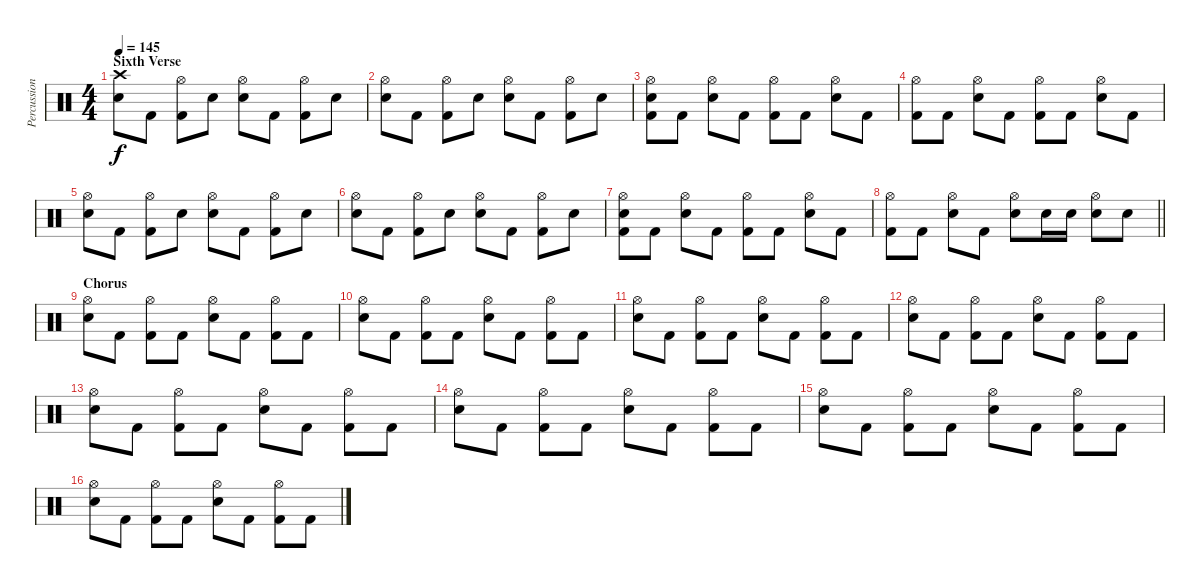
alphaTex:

\track ("Percussion" "Percussion") {instrument percussion}
\staff {score}
\articulation defaults
\ts (4 4)
\section ("" "Sixth Verse")
\tempo 145
\clef neutral
\ks c
("Crash high (hit)" "Electric Snare (hit)").8{dy f} "Kick (hit) 2".8 ("Hi-Hat (open)" "Kick (hit) 2").8 "Electric Snare (hit)".8 ("Hi-Hat (open)" "Electric Snare (hit)").8 "Kick (hit) 2".8 ("Hi-Hat (open)" "Kick (hit) 2").8 "Electric Snare (hit)".8 |
("Hi-Hat (open)" "Electric Snare (hit)").8 "Kick (hit) 2".8 ("Hi-Hat (open)" "Kick (hit) 2").8 "Electric Snare (hit)".8 ("Hi-Hat (open)" "Electric Snare (hit)").8 "Kick (hit) 2".8 ("Hi-Hat (open)" "Kick (hit) 2").8 "Electric Snare (hit)".8 |
("Hi-Hat (open)" "Electric Snare (hit)" "Kick (hit) 2").8 "Kick (hit) 2".8 ("Hi-Hat (open)" "Electric Snare (hit)").8 "Kick (hit) 2".8 ("Hi-Hat (open)" "Kick (hit) 2").8 "Kick (hit) 2".8 ("Hi-Hat (open)" "Electric Snare (hit)").8 "Kick (hit) 2".8 |
("Hi-Hat (open)" "Kick (hit) 2").8 "Kick (hit) 2".8 ("Hi-Hat (open)" "Electric Snare (hit)").8 "Kick (hit) 2".8 ("Hi-Hat (open)" "Kick (hit) 2").8 "Kick (hit) 2".8 ("Hi-Hat (open)" "Electric Snare (hit)").8 "Kick (hit) 2".8 |
("Hi-Hat (open)" "Electric Snare (hit)").8 "Kick (hit) 2".8 ("Hi-Hat (open)" "Kick (hit) 2").8 "Electric Snare (hit)".8 ("Hi-Hat (open)" "Electric Snare (hit)").8 "Kick (hit) 2".8 ("Hi-Hat (open)" "Kick (hit) 2").8 "Electric Snare (hit)".8 |
("Hi-Hat (open)" "Electric Snare (hit)").8 "Kick (hit) 2".8 ("Hi-Hat (open)" "Kick (hit) 2").8 "Electric Snare (hit)".8 ("Hi-Hat (open)" "Electric Snare (hit)").8 "Kick (hit) 2".8 ("Hi-Hat (open)" "Kick (hit) 2").8 "Electric Snare (hit)".8 |
("Hi-Hat (open)" "Electric Snare (hit)" "Kick (hit) 2").8 "Kick (hit) 2".8 ("Hi-Hat (open)" "Electric Snare (hit)").8 "Kick (hit) 2".8 ("Hi-Hat (open)" "Kick (hit) 2").8 "Kick (hit) 2".8 ("Hi-Hat (open)" "Electric Snare (hit)").8 "Kick (hit) 2".8 |
\barLineRight lightlight
("Hi-Hat (open)" "Kick (hit) 2").8 "Kick (hit) 2".8 ("Hi-Hat (open)" "Electric Snare (hit)").8 "Kick (hit) 2".8 ("Hi-Hat (open)" "Electric Snare (hit)").8 "Electric Snare (hit)".16 "Electric Snare (hit)".16 ("Hi-Hat (open)" "Electric Snare (hit)").8 "Electric Snare (hit)".8 |
\section ("" "Chorus")
("Hi-Hat (open)" "Electric Snare (hit)").8 "Kick (hit) 2".8 ("Hi-Hat (open)" "Kick (hit) 2").8 "Kick (hit) 2".8 ("Hi-Hat (open)" "Electric Snare (hit)").8 "Kick (hit) 2".8 ("Hi-Hat (open)" "Kick (hit) 2").8 "Kick (hit) 2".8 |
("Hi-Hat (open)" "Electric Snare (hit)").8 "Kick (hit) 2".8 ("Hi-Hat (open)" "Kick (hit) 2").8 "Kick (hit) 2".8 ("Hi-Hat (open)" "Electric Snare (hit)").8 "Kick (hit) 2".8 ("Hi-Hat (open)" "Kick (hit) 2").8 "Kick (hit) 2".8 |
("Hi-Hat (open)" "Electric Snare (hit)").8 "Kick (hit) 2".8 ("Hi-Hat (open)" "Kick (hit) 2").8 "Kick (hit) 2".8 ("Hi-Hat (open)" "Electric Snare (hit)").8 "Kick (hit) 2".8 ("Hi-Hat (open)" "Kick (hit) 2").8 "Kick (hit) 2".8 |
("Hi-Hat (open)" "Electric Snare (hit)").8 "Kick (hit) 2".8 ("Hi-Hat (open)" "Kick (hit) 2").8 "Kick (hit) 2".8 ("Hi-Hat (open)" "Electric Snare (hit)").8 "Kick (hit) 2".8 ("Hi-Hat (open)" "Kick (hit) 2").8 "Kick (hit) 2".8 |
("Hi-Hat (open)" "Electric Snare (hit)").8 "Kick (hit) 2".8 ("Hi-Hat (open)" "Kick (hit) 2").8 "Kick (hit) 2".8 ("Hi-Hat (open)" "Electric Snare (hit)").8 "Kick (hit) 2".8 ("Hi-Hat (open)" "Kick (hit) 2").8 "Kick (hit) 2".8 |
("Hi-Hat (open)" "Electric Snare (hit)").8 "Kick (hit) 2".8 ("Hi-Hat (open)" "Kick (hit) 2").8 "Kick (hit) 2".8 ("Hi-Hat (open)" "Electric Snare (hit)").8 "Kick (hit) 2".8 ("Hi-Hat (open)" "Kick (hit) 2").8 "Kick (hit) 2".8 |
("Hi-Hat (open)" "Electric Snare (hit)").8 "Kick (hit) 2".8 ("Hi-Hat (open)" "Kick (hit) 2").8 "Kick (hit) 2".8 ("Hi-Hat (open)" "Electric Snare (hit)").8 "Kick (hit) 2".8 ("Hi-Hat (open)" "Kick (hit) 2").8 "Kick (hit) 2".8 |
("Hi-Hat (open)" "Electric Snare (hit)").8 "Kick (hit) 2".8 ("Hi-Hat (open)" "Kick (hit) 2").8 "Kick (hit) 2".8 ("Hi-Hat (open)" "Electric Snare (hit)").8 "Kick (hit) 2".8 ("Hi-Hat (open)" "Kick (hit) 2").8 "Kick (hit) 2".8
